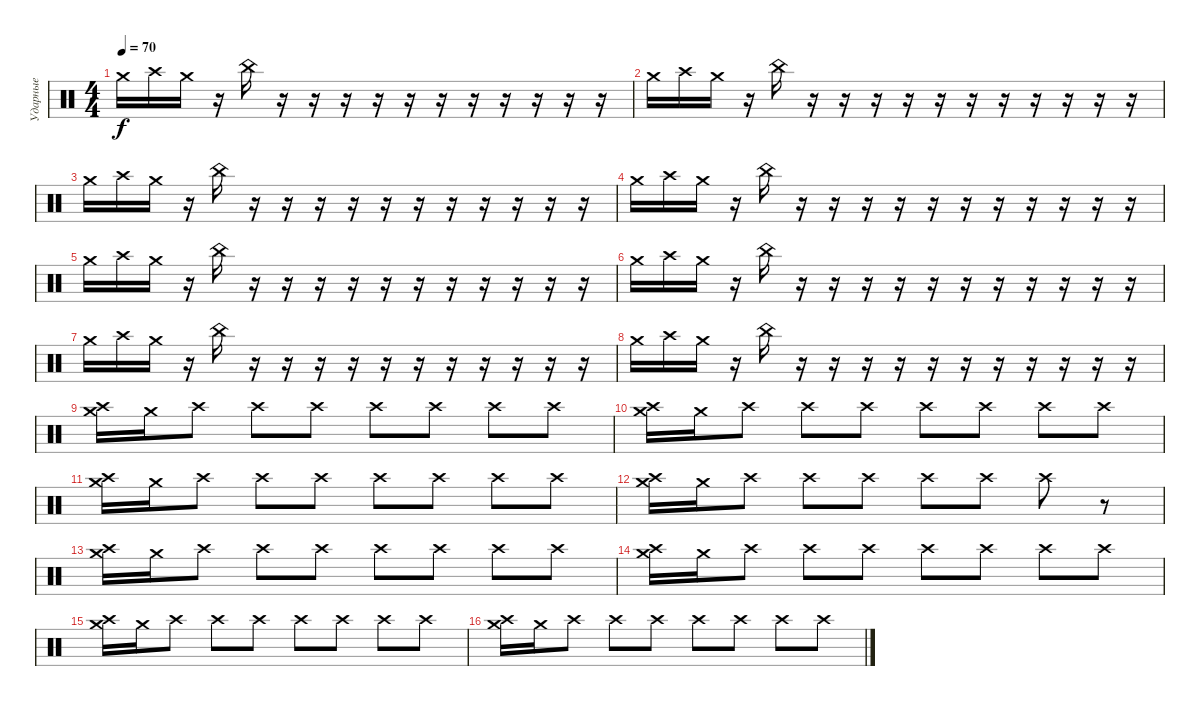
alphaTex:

\track ("Ударные" "Ударные") {instrument percussion}
\staff {score}
\articulation defaults
\ts (4 4)
\tempo 70
\clef neutral
\ks c "Crash medium (hit)".16{dy f} "Crash high (hit)".16 "Crash medium (hit)".16
r.16 "China (hit)".16 r.16 r.16 r.16 r.16 r.16 r.16 r.16 r.16 r.16 r.16 r.16 |
"Crash medium (hit)".16 "Crash high (hit)".16 "Crash medium (hit)".16 r.16 "China (hit)".16 r.16 r.16 r.16 r.16 r.16 r.16 r.16 r.16 r.16 r.16 r.16 |
"Crash medium (hit)".16 "Crash high (hit)".16 "Crash medium (hit)".16 r.16 "China (hit)".16 r.16 r.16 r.16 r.16 r.16 r.16 r.16 r.16 r.16 r.16 r.16 |
"Crash medium (hit)".16 "Crash high (hit)".16 "Crash medium (hit)".16 r.16 "China (hit)".16 r.16 r.16 r.16 r.16 r.16 r.16 r.16 r.16 r.16 r.16 r.16 |
"Crash medium (hit)".16 "Crash high (hit)".16 "Crash medium (hit)".16 r.16 "China (hit)".16 r.16 r.16 r.16 r.16 r.16 r.16 r.16 r.16 r.16 r.16 r.16 |
"Crash medium (hit)".16 "Crash high (hit)".16 "Crash medium (hit)".16 r.16 "China (hit)".16 r.16 r.16 r.16 r.16 r.16 r.16 r.16 r.16 r.16 r.16 r.16 |
"Crash medium (hit)".16 "Crash high (hit)".16 "Crash medium (hit)".16 r.16 "China (hit)".16 r.16 r.16 r.16 r.16 r.16 r.16 r.16 r.16 r.16 r.16 r.16 |
"Crash medium (hit)".16 "Crash high (hit)".16 "Crash medium (hit)".16 r.16 "China (hit)".16 r.16 r.16 r.16 r.16 r.16 r.16 r.16 r.16 r.16 r.16 r.16 |
("Crash medium (hit)" "Crash high (hit)").16 "Crash medium (hit)".16 "Crash high (hit)".8 "Crash high (hit)".8 "Crash high (hit)".8 "Crash high (hit)".8 "Crash high (hit)".8 "Crash high (hit)".8 "Crash high (hit)".8 |
("Crash medium (hit)" "Crash high (hit)").16 "Crash medium (hit)".16 "Crash high (hit)".8 "Crash high (hit)".8 "Crash high (hit)".8 "Crash high (hit)".8 "Crash high (hit)".8 "Crash high (hit)".8 "Crash high (hit)".8 |
("Crash medium (hit)" "Crash high (hit)").16 "Crash medium (hit)".16 "Crash high (hit)".8 "Crash high (hit)".8 "Crash high (hit)".8 "Crash high (hit)".8 "Crash high (hit)".8 "Crash high (hit)".8 "Crash high (hit)".8 |
("Crash medium (hit)" "Crash high (hit)").16 "Crash medium (hit)".16 "Crash high (hit)".8 "Crash high (hit)".8 "Crash high (hit)".8 "Crash high (hit)".8 "Crash high (hit)".8 "Crash high (hit)".8 r.8 |
("Crash medium (hit)" "Crash high (hit)").16 "Crash medium (hit)".16 "Crash high (hit)".8 "Crash high (hit)".8 "Crash high (hit)".8 "Crash high (hit)".8 "Crash high (hit)".8 "Crash high (hit)".8 "Crash high (hit)".8 |
("Crash medium (hit)" "Crash high (hit)").16 "Crash medium (hit)".16 "Crash high (hit)".8 "Crash high (hit)".8 "Crash high (hit)".8 "Crash high (hit)".8 "Crash high (hit)".8 "Crash high (hit)".8 "Crash high (hit)".8 |
("Crash medium (hit)" "Crash high (hit)").16 "Crash medium (hit)".16 "Crash high (hit)".8 "Crash high (hit)".8 "Crash high (hit)".8 "Crash high (hit)".8 "Crash high (hit)".8 "Crash high (hit)".8 "Crash high (hit)".8 |
("Crash medium (hit)" "Crash high (hit)").16 "Crash medium (hit)".16 "Crash high (hit)".8 "Crash high (hit)".8 "Crash high (hit)".8 "Crash high (hit)".8 "Crash high (hit)".8 "Crash high (hit)".8 "Crash high (hit)".8
